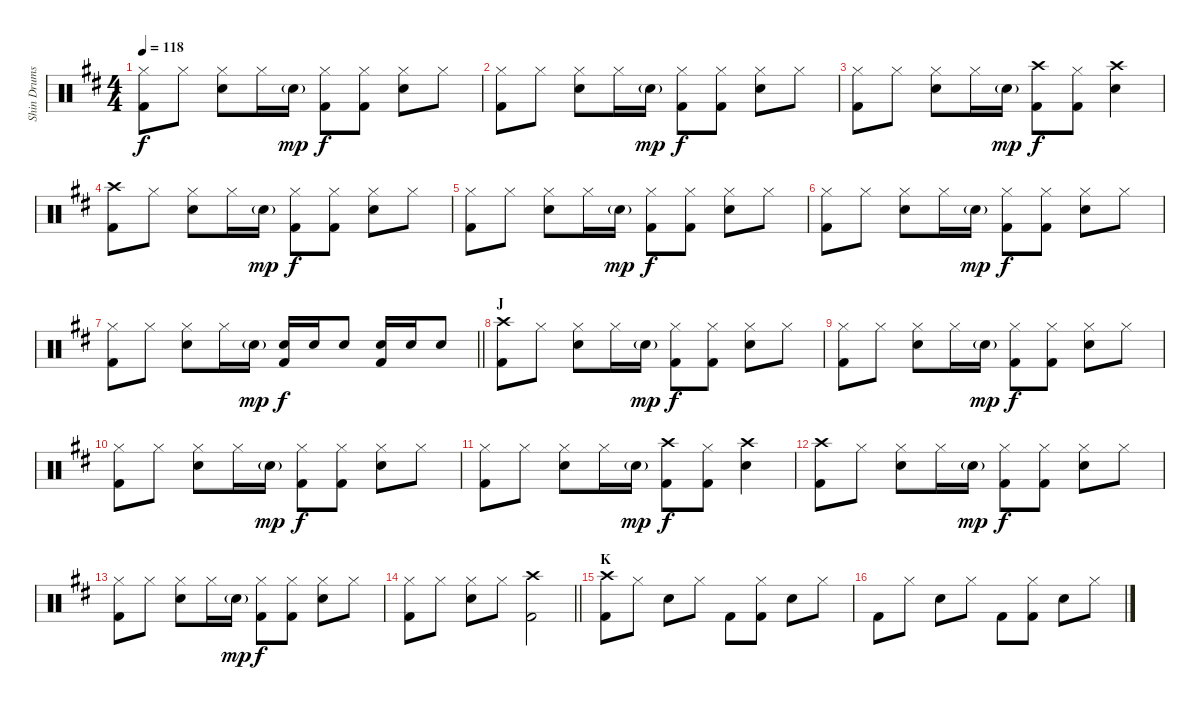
\track ("Shin Drums" "Shin Drums") {instrument percussion}
\staff {score}
\articulation defaults
\ts (4 4)
\tempo 118
\clef neutral
\ks d
("Hi-Hat (closed)" "Kick (hit) 2").8{dy f} "Hi-Hat (closed)".8 ("Hi-Hat (closed)" "Snare (hit) 2").8 "Hi-Hat (closed)".16 "Snare (hit) 2"{g}.16{dy mp} ("Hi-Hat (closed)" "Kick (hit) 2").8{dy f} ("Hi-Hat (closed)" "Kick (hit) 2").8 ("Hi-Hat (closed)" "Snare (hit) 2").8 "Hi-Hat (closed)".8 |
("Hi-Hat (closed)" "Kick (hit) 2").8 "Hi-Hat (closed)".8 ("Hi-Hat (closed)" "Snare (hit) 2").8 "Hi-Hat (closed)".16 "Snare (hit) 2"{g}.16{dy mp} ("Hi-Hat (closed)" "Kick (hit) 2").8{dy f} ("Hi-Hat (closed)" "Kick (hit) 2").8 ("Hi-Hat (closed)" "Snare (hit) 2").8 "Hi-Hat (closed)".8 |
("Hi-Hat (closed)" "Kick (hit) 2").8 "Hi-Hat (closed)".8 ("Hi-Hat (closed)" "Snare (hit) 2").8 "Hi-Hat (closed)".16 "Snare (hit) 2"{g}.16{dy mp} ("Crash high (hit)" "Kick (hit) 2").8{dy f} ("Hi-Hat (closed)" "Kick (hit) 2").8 ("Crash high (hit)" "Snare (hit) 2").4 |
("Crash high (hit)" "Kick (hit) 2").8 "Hi-Hat (closed)".8 ("Hi-Hat (closed)" "Snare (hit) 2").8 "Hi-Hat (closed)".16 "Snare (hit) 2"{g}.16{dy mp} ("Hi-Hat (closed)" "Kick (hit) 2").8{dy f} ("Hi-Hat (closed)" "Kick (hit) 2").8 ("Hi-Hat (closed)" "Snare (hit) 2").8 "Hi-Hat (closed)".8 |
("Hi-Hat (closed)" "Kick (hit) 2").8 "Hi-Hat (closed)".8 ("Hi-Hat (closed)" "Snare (hit) 2").8 "Hi-Hat (closed)".16 "Snare (hit) 2"{g}.16{dy mp} ("Hi-Hat (closed)" "Kick (hit) 2").8{dy f} ("Hi-Hat (closed)" "Kick (hit) 2").8 ("Hi-Hat (closed)" "Snare (hit) 2").8 "Hi-Hat (closed)".8 |
("Hi-Hat (closed)" "Kick (hit) 2").8 "Hi-Hat (closed)".8 ("Hi-Hat (closed)" "Snare (hit) 2").8 "Hi-Hat (closed)".16 "Snare (hit) 2"{g}.16{dy mp} ("Hi-Hat (closed)" "Kick (hit) 2").8{dy f} ("Hi-Hat (closed)" "Kick (hit) 2").8 ("Hi-Hat (closed)" "Snare (hit) 2").8 "Hi-Hat (closed)".8 |
\barLineRight lightlight
("Hi-Hat (closed)" "Kick (hit) 2").8 "Hi-Hat (closed)".8 ("Hi-Hat (closed)" "Snare (hit) 2").8 "Hi-Hat (closed)".16 "Snare (hit) 2"{g}.16{dy mp} ("Snare (hit) 2" "Kick (hit) 2").16{dy f} "Snare (hit) 2".16 "Snare (hit)".8 ("Snare (hit) 2" "Kick (hit) 2").16 "Snare (hit) 2".16 "Snare (hit) 2".8 |
\section ("" "J")
("Crash high (hit)" "Kick (hit) 2").8 "Hi-Hat (closed)".8 ("Hi-Hat (closed)" "Snare (hit) 2").8 "Hi-Hat (closed)".16 "Snare (hit) 2"{g}.16{dy mp} ("Hi-Hat (closed)" "Kick (hit) 2").8{dy f} ("Hi-Hat (closed)" "Kick (hit) 2").8 ("Hi-Hat (closed)" "Snare (hit) 2").8 "Hi-Hat (closed)".8 |
("Hi-Hat (closed)" "Kick (hit) 2").8 "Hi-Hat (closed)".8 ("Hi-Hat (closed)" "Snare (hit) 2").8 "Hi-Hat (closed)".16 "Snare (hit) 2"{g}.16{dy mp} ("Hi-Hat (closed)" "Kick (hit) 2").8{dy f} ("Hi-Hat (closed)" "Kick (hit) 2").8 ("Hi-Hat (closed)" "Snare (hit) 2").8 "Hi-Hat (closed)".8 |
("Hi-Hat (closed)" "Kick (hit) 2").8 "Hi-Hat (closed)".8 ("Hi-Hat (closed)" "Snare (hit) 2").8 "Hi-Hat (closed)".16 "Snare (hit) 2"{g}.16{dy mp} ("Hi-Hat (closed)" "Kick (hit) 2").8{dy f} ("Hi-Hat (closed)" "Kick (hit) 2").8 ("Hi-Hat (closed)" "Snare (hit) 2").8 "Hi-Hat (closed)".8 |
("Hi-Hat (closed)" "Kick (hit) 2").8 "Hi-Hat (closed)".8 ("Hi-Hat (closed)" "Snare (hit) 2").8 "Hi-Hat (closed)".16 "Snare (hit) 2"{g}.16{dy mp} ("Crash high (hit)" "Kick (hit) 2").8{dy f} ("Hi-Hat (closed)" "Kick (hit) 2").8 ("Crash high (hit)" "Snare (hit) 2").4 |
("Crash high (hit)" "Kick (hit) 2").8 "Hi-Hat (closed)".8 ("Hi-Hat (closed)" "Snare (hit) 2").8 "Hi-Hat (closed)".16 "Snare (hit) 2"{g}.16{dy mp} ("Hi-Hat (closed)" "Kick (hit) 2").8{dy f} ("Hi-Hat (closed)" "Kick (hit) 2").8 ("Hi-Hat (closed)" "Snare (hit) 2").8 "Hi-Hat (closed)".8 |
("Hi-Hat (closed)" "Kick (hit) 2").8 "Hi-Hat (closed)".8 ("Hi-Hat (closed)" "Snare (hit) 2").8 "Hi-Hat (closed)".16 "Snare (hit) 2"{g}.16{dy mp} ("Hi-Hat (closed)" "Kick (hit) 2").8{dy f} ("Hi-Hat (closed)" "Kick (hit) 2").8 ("Hi-Hat (closed)" "Snare (hit) 2").8 "Hi-Hat (closed)".8 |
\barLineRight lightlight
("Hi-Hat (closed)" "Kick (hit) 2").8 "Hi-Hat (closed)".8 ("Hi-Hat (closed)" "Snare (hit) 2").8 "Hi-Hat (closed)".8 ("Crash high (hit)" "Kick (hit) 2").2 |
\section ("" "K")
("Crash high (hit)" "Kick (hit) 2").8 "Hi-Hat (closed)".8 "Snare (hit) 2".8 "Hi-Hat (closed)".8 "Kick (hit) 2".8 ("Hi-Hat (closed)" "Kick (hit) 2").8 "Snare (hit) 2".8 "Hi-Hat (closed)".8 |
"Kick (hit) 2".8 "Hi-Hat (closed)".8 "Snare (hit) 2".8 "Hi-Hat (closed)".8 "Kick (hit) 2".8 ("Hi-Hat (closed)" "Kick (hit) 2").8 "Snare (hit) 2".8 "Hi-Hat (closed)".8
